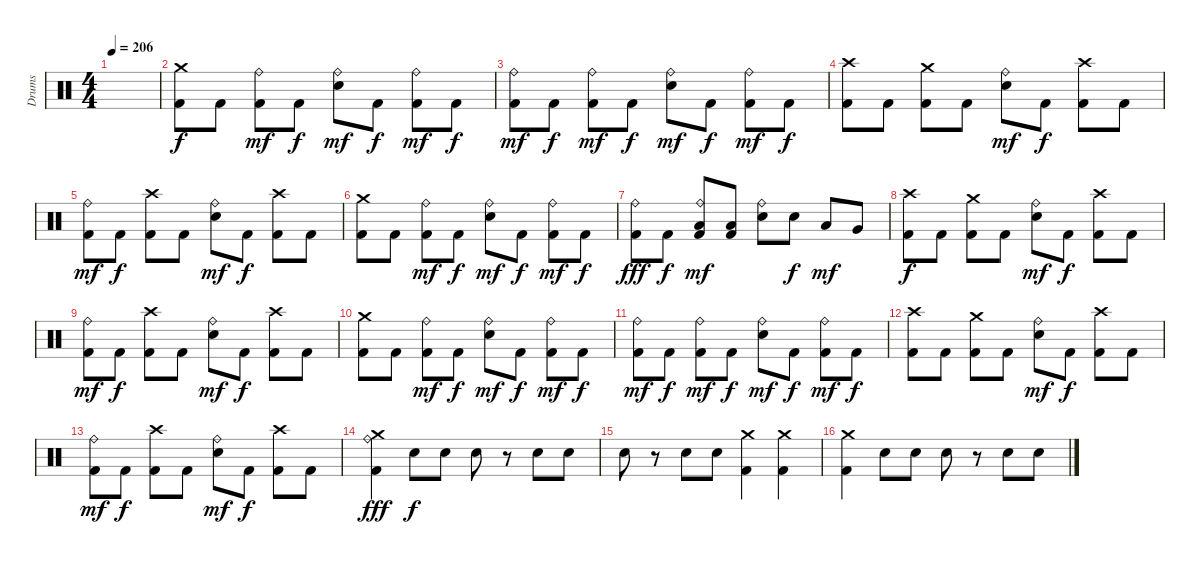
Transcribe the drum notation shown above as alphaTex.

\track ("Drums" "Drums") {instrument percussion}
\staff {score}
\articulation defaults
\ts (4 4)
\tempo 206
\clef neutral
\ks c
|
("Crash medium (hit)" "Kick (hit) 2").8 "Kick (hit) 2".8 ("Ride (bell)" "Kick (hit) 2").8{dy mf} "Kick (hit) 2".8{dy f} ("Ride (bell)" "Snare (hit) 2").8{dy mf} "Kick (hit) 2".8{dy f} ("Ride (bell)" "Kick (hit) 2").8{dy mf} "Kick (hit) 2".8{dy f} |
("Ride (bell)" "Kick (hit) 2").8{dy mf} "Kick (hit) 2".8{dy f} ("Ride (bell)" "Kick (hit) 2").8{dy mf} "Kick (hit) 2".8{dy f} ("Ride (bell)" "Snare (hit) 2").8{dy mf} "Kick (hit) 2".8{dy f} ("Ride (bell)" "Kick (hit) 2").8{dy mf} "Kick (hit) 2".8{dy f} |
("Crash high (hit)" "Kick (hit) 2").8 "Kick (hit) 2".8 ("Crash medium (hit)" "Kick (hit) 2").8 "Kick (hit) 2".8 ("Ride (bell)" "Snare (hit) 2").8{dy mf} "Kick (hit) 2".8{dy f} ("Crash high (hit)" "Kick (hit) 2").8 "Kick (hit) 2".8 |
("Ride (bell)" "Kick (hit) 2").8{dy mf} "Kick (hit) 2".8{dy f} ("Crash high (hit)" "Kick (hit) 2").8 "Kick (hit) 2".8 ("Ride (bell)" "Snare (hit) 2").8{dy mf} "Kick (hit) 2".8{dy f} ("Crash high (hit)" "Kick (hit) 2").8 "Kick (hit) 2".8 |
("Crash medium (hit)" "Kick (hit) 2").8 "Kick (hit) 2".8 ("Ride (bell)" "Kick (hit) 2").8{dy mf} "Kick (hit) 2".8{dy f} ("Ride (bell)" "Snare (hit) 2").8{dy mf} "Kick (hit) 2".8{dy f} ("Ride (bell)" "Kick (hit) 2").8{dy mf} "Kick (hit) 2".8{dy f} |
("Ride (bell)" "Kick (hit) 2").8{dy fff} "Kick (hit) 2".8{dy f} ("Ride (bell)" "Low Floor Tom (hit)" "Kick (hit) 2").8{dy mf} ("Low Floor Tom (hit)" "Kick (hit) 2").8 ("Ride (bell)" "Snare (hit) 2").8 "Snare (hit) 2".8{dy f} "Low Tom (hit)".8{dy mf} "Very Low Tom (hit)".8 |
("Crash high (hit)" "Kick (hit) 2").8{dy f} "Kick (hit) 2".8 ("Crash medium (hit)" "Kick (hit) 2").8 "Kick (hit) 2".8 ("Ride (bell)" "Snare (hit) 2").8{dy mf} "Kick (hit) 2".8{dy f} ("Crash high (hit)" "Kick (hit) 2").8 "Kick (hit) 2".8 |
("Ride (bell)" "Kick (hit) 2").8{dy mf} "Kick (hit) 2".8{dy f} ("Crash high (hit)" "Kick (hit) 2").8 "Kick (hit) 2".8 ("Ride (bell)" "Snare (hit) 2").8{dy mf} "Kick (hit) 2".8{dy f} ("Crash high (hit)" "Kick (hit) 2").8 "Kick (hit) 2".8 |
("Crash medium (hit)" "Kick (hit) 2").8 "Kick (hit) 2".8 ("Ride (bell)" "Kick (hit) 2").8{dy mf} "Kick (hit) 2".8{dy f} ("Ride (bell)" "Snare (hit) 2").8{dy mf} "Kick (hit) 2".8{dy f} ("Ride (bell)" "Kick (hit) 2").8{dy mf} "Kick (hit) 2".8{dy f} |
("Ride (bell)" "Kick (hit) 2").8{dy mf} "Kick (hit) 2".8{dy f} ("Ride (bell)" "Kick (hit) 2").8{dy mf} "Kick (hit) 2".8{dy f} ("Ride (bell)" "Snare (hit) 2").8{dy mf} "Kick (hit) 2".8{dy f} ("Ride (bell)" "Kick (hit) 2").8{dy mf} "Kick (hit) 2".8{dy f} |
("Crash high (hit)" "Kick (hit) 2").8 "Kick (hit) 2".8 ("Crash medium (hit)" "Kick (hit) 2").8 "Kick (hit) 2".8 ("Ride (bell)" "Snare (hit) 2").8{dy mf} "Kick (hit) 2".8{dy f} ("Crash high (hit)" "Kick (hit) 2").8 "Kick (hit) 2".8 |
("Ride (bell)" "Kick (hit) 2").8{dy mf} "Kick (hit) 2".8{dy f} ("Crash high (hit)" "Kick (hit) 2").8 "Kick (hit) 2".8 ("Ride (bell)" "Snare (hit) 2").8{dy mf} "Kick (hit) 2".8{dy f} ("Crash high (hit)" "Kick (hit) 2").8 "Kick (hit) 2".8 |
("Crash medium (hit)" "Ride (bell)" "Kick (hit) 2").4{dy fff} "Snare (hit) 2".8{dy f} "Snare (hit) 2".8 "Snare (hit) 2".8 r.8 "Snare (hit) 2".8 "Snare (hit) 2".8 |
"Snare (hit) 2".8 r.8 "Snare (hit) 2".8 "Snare (hit) 2".8 ("Crash medium (hit)" "Kick (hit) 2").4 ("Crash medium (hit)" "Kick (hit) 2").4 |
("Crash medium (hit)" "Kick (hit) 2").4 "Snare (hit) 2".8 "Snare (hit) 2".8 "Snare (hit) 2".8 r.8 "Snare (hit) 2".8 "Snare (hit) 2".8
